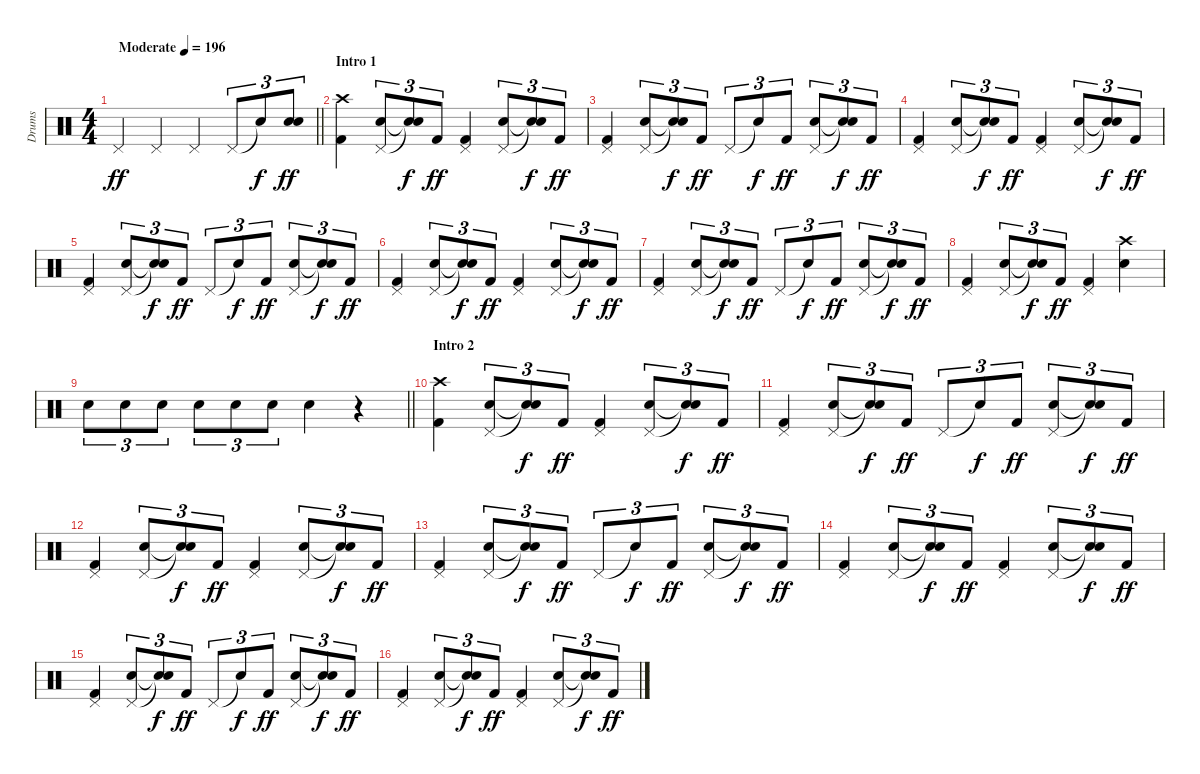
\track ("Drums" "Drums") {instrument percussion}
\staff {score}
\articulation defaults
\ts (4 4)
\tempo (196 "Moderate")
\clef neutral
\barLineRight lightlight
\ks c "Pedal Hi-Hat (hit)".4{dy ff} "Pedal Hi-Hat (hit)".4 "Pedal Hi-Hat (hit)".4 "Pedal Hi-Hat (hit)".8{tu (3 2)} "Snare (hit)"{t}.8{tu (3 2) dy f}
("Snare (hit) 2" "Electric Snare (hit)").8{tu (3 2) dy ff} |
\section ("" "Intro 1")
("Crash high (hit)" "Kick (hit) 2").4 ("Pedal Hi-Hat (hit)" "Electric Snare (hit)").8{tu (3 2)} ("Snare (hit)"{t} "Snare (hit)"{t}).8{tu (3 2) dy f} "Kick (hit) 2".8{tu (3 2) dy ff} ("Pedal Hi-Hat (hit)" "Kick (hit) 2").4 ("Pedal Hi-Hat (hit)" "Electric Snare (hit)").8{tu (3 2)} ("Snare (hit)"{t} "Snare (hit)"{t}).8{tu (3 2) dy f} "Kick (hit) 2".8{tu (3 2) dy ff} |
("Pedal Hi-Hat (hit)" "Kick (hit) 2").4 ("Pedal Hi-Hat (hit)" "Electric Snare (hit)").8{tu (3 2)} ("Snare (hit)"{t} "Snare (hit)"{t}).8{tu (3 2) dy f} "Kick (hit) 2".8{tu (3 2) dy ff} "Pedal Hi-Hat (hit)".8{tu (3 2)} "Snare (hit)"{t}.8{tu (3 2) dy f} "Kick (hit) 2".8{tu (3 2) dy ff} ("Pedal Hi-Hat (hit)" "Electric Snare (hit)").8{tu (3 2)} ("Snare (hit)"{t} "Snare (hit)"{t}).8{tu (3 2) dy f} "Kick (hit) 2".8{tu (3 2) dy ff} |
("Pedal Hi-Hat (hit)" "Kick (hit) 2").4 ("Pedal Hi-Hat (hit)" "Electric Snare (hit)").8{tu (3 2)} ("Snare (hit)"{t} "Snare (hit)"{t}).8{tu (3 2) dy f} "Kick (hit) 2".8{tu (3 2) dy ff} ("Pedal Hi-Hat (hit)" "Kick (hit) 2").4 ("Pedal Hi-Hat (hit)" "Electric Snare (hit)").8{tu (3 2)} ("Snare (hit)"{t} "Snare (hit)"{t}).8{tu (3 2) dy f} "Kick (hit) 2".8{tu (3 2) dy ff} |
("Pedal Hi-Hat (hit)" "Kick (hit) 2").4 ("Pedal Hi-Hat (hit)" "Electric Snare (hit)").8{tu (3 2)} ("Snare (hit)"{t} "Snare (hit)"{t}).8{tu (3 2) dy f} "Kick (hit) 2".8{tu (3 2) dy ff} "Pedal Hi-Hat (hit)".8{tu (3 2)} "Snare (hit)"{t}.8{tu (3 2) dy f} "Kick (hit) 2".8{tu (3 2) dy ff} ("Pedal Hi-Hat (hit)" "Electric Snare (hit)").8{tu (3 2)} ("Snare (hit)"{t} "Snare (hit)"{t}).8{tu (3 2) dy f} "Kick (hit) 2".8{tu (3 2) dy ff} |
("Pedal Hi-Hat (hit)" "Kick (hit) 2").4 ("Pedal Hi-Hat (hit)" "Electric Snare (hit)").8{tu (3 2)} ("Snare (hit)"{t} "Snare (hit)"{t}).8{tu (3 2) dy f} "Kick (hit) 2".8{tu (3 2) dy ff} ("Pedal Hi-Hat (hit)" "Kick (hit) 2").4 ("Pedal Hi-Hat (hit)" "Electric Snare (hit)").8{tu (3 2)} ("Snare (hit)"{t} "Snare (hit)"{t}).8{tu (3 2) dy f} "Kick (hit) 2".8{tu (3 2) dy ff} |
("Pedal Hi-Hat (hit)" "Kick (hit) 2").4 ("Pedal Hi-Hat (hit)" "Electric Snare (hit)").8{tu (3 2)} ("Snare (hit)"{t} "Snare (hit)"{t}).8{tu (3 2) dy f} "Kick (hit) 2".8{tu (3 2) dy ff} "Pedal Hi-Hat (hit)".8{tu (3 2)} "Snare (hit)"{t}.8{tu (3 2) dy f} "Kick (hit) 2".8{tu (3 2) dy ff} ("Pedal Hi-Hat (hit)" "Electric Snare (hit)").8{tu (3 2)} ("Snare (hit)"{t} "Snare (hit)"{t}).8{tu (3 2) dy f} "Kick (hit) 2".8{tu (3 2) dy ff} |
("Pedal Hi-Hat (hit)" "Kick (hit) 2").4 ("Pedal Hi-Hat (hit)" "Electric Snare (hit)").8{tu (3 2)} ("Snare (hit)"{t} "Snare (hit)"{t}).8{tu (3 2) dy f} "Kick (hit) 2".8{tu (3 2) dy ff} ("Pedal Hi-Hat (hit)" "Kick (hit) 2").4 ("Crash high (hit)" "Electric Snare (hit)").4 |
\barLineRight lightlight "Electric Snare (hit)".8{tu (3 2)} "Electric Snare (hit)".8{tu (3 2)} "Electric Snare (hit)".8{tu (3 2)} "Electric Snare (hit)".8{tu (3 2)} "Electric Snare (hit)".8{tu (3 2)} "Electric Snare (hit)".8{tu (3 2)} "Electric Snare (hit)".4
r.4 |
\section ("" "Intro 2")
("Crash high (hit)" "Kick (hit) 2").4 ("Pedal Hi-Hat (hit)" "Electric Snare (hit)").8{tu (3 2)} ("Snare (hit)"{t} "Snare (hit)"{t}).8{tu (3 2) dy f} "Kick (hit) 2".8{tu (3 2) dy ff} ("Pedal Hi-Hat (hit)" "Kick (hit) 2").4 ("Pedal Hi-Hat (hit)" "Electric Snare (hit)").8{tu (3 2)} ("Snare (hit)"{t} "Snare (hit)"{t}).8{tu (3 2) dy f} "Kick (hit) 2".8{tu (3 2) dy ff} |
("Pedal Hi-Hat (hit)" "Kick (hit) 2").4 ("Pedal Hi-Hat (hit)" "Electric Snare (hit)").8{tu (3 2)} ("Snare (hit)"{t} "Snare (hit)"{t}).8{tu (3 2) dy f} "Kick (hit) 2".8{tu (3 2) dy ff} "Pedal Hi-Hat (hit)".8{tu (3 2)} "Snare (hit)"{t}.8{tu (3 2) dy f} "Kick (hit) 2".8{tu (3 2) dy ff} ("Pedal Hi-Hat (hit)" "Electric Snare (hit)").8{tu (3 2)} ("Snare (hit)"{t} "Snare (hit)"{t}).8{tu (3 2) dy f} "Kick (hit) 2".8{tu (3 2) dy ff} |
("Pedal Hi-Hat (hit)" "Kick (hit) 2").4 ("Pedal Hi-Hat (hit)" "Electric Snare (hit)").8{tu (3 2)} ("Snare (hit)"{t} "Snare (hit)"{t}).8{tu (3 2) dy f} "Kick (hit) 2".8{tu (3 2) dy ff} ("Pedal Hi-Hat (hit)" "Kick (hit) 2").4 ("Pedal Hi-Hat (hit)" "Electric Snare (hit)").8{tu (3 2)} ("Snare (hit)"{t} "Snare (hit)"{t}).8{tu (3 2) dy f} "Kick (hit) 2".8{tu (3 2) dy ff} |
("Pedal Hi-Hat (hit)" "Kick (hit) 2").4 ("Pedal Hi-Hat (hit)" "Electric Snare (hit)").8{tu (3 2)} ("Snare (hit)"{t} "Snare (hit)"{t}).8{tu (3 2) dy f} "Kick (hit) 2".8{tu (3 2) dy ff} "Pedal Hi-Hat (hit)".8{tu (3 2)} "Snare (hit)"{t}.8{tu (3 2) dy f} "Kick (hit) 2".8{tu (3 2) dy ff} ("Pedal Hi-Hat (hit)" "Electric Snare (hit)").8{tu (3 2)} ("Snare (hit)"{t} "Snare (hit)"{t}).8{tu (3 2) dy f} "Kick (hit) 2".8{tu (3 2) dy ff} |
("Pedal Hi-Hat (hit)" "Kick (hit) 2").4 ("Pedal Hi-Hat (hit)" "Electric Snare (hit)").8{tu (3 2)} ("Snare (hit)"{t} "Snare (hit)"{t}).8{tu (3 2) dy f} "Kick (hit) 2".8{tu (3 2) dy ff} ("Pedal Hi-Hat (hit)" "Kick (hit) 2").4 ("Pedal Hi-Hat (hit)" "Electric Snare (hit)").8{tu (3 2)} ("Snare (hit)"{t} "Snare (hit)"{t}).8{tu (3 2) dy f} "Kick (hit) 2".8{tu (3 2) dy ff} |
("Pedal Hi-Hat (hit)" "Kick (hit) 2").4 ("Pedal Hi-Hat (hit)" "Electric Snare (hit)").8{tu (3 2)} ("Snare (hit)"{t} "Snare (hit)"{t}).8{tu (3 2) dy f} "Kick (hit) 2".8{tu (3 2) dy ff} "Pedal Hi-Hat (hit)".8{tu (3 2)} "Snare (hit)"{t}.8{tu (3 2) dy f} "Kick (hit) 2".8{tu (3 2) dy ff} ("Pedal Hi-Hat (hit)" "Electric Snare (hit)").8{tu (3 2)} ("Snare (hit)"{t} "Snare (hit)"{t}).8{tu (3 2) dy f} "Kick (hit) 2".8{tu (3 2) dy ff} |
("Pedal Hi-Hat (hit)" "Kick (hit) 2").4 ("Pedal Hi-Hat (hit)" "Electric Snare (hit)").8{tu (3 2)} ("Snare (hit)"{t} "Snare (hit)"{t}).8{tu (3 2) dy f} "Kick (hit) 2".8{tu (3 2) dy ff} ("Pedal Hi-Hat (hit)" "Kick (hit) 2").4 ("Pedal Hi-Hat (hit)" "Electric Snare (hit)").8{tu (3 2)} ("Snare (hit)"{t} "Snare (hit)"{t}).8{tu (3 2) dy f} "Kick (hit) 2".8{tu (3 2) dy ff}
